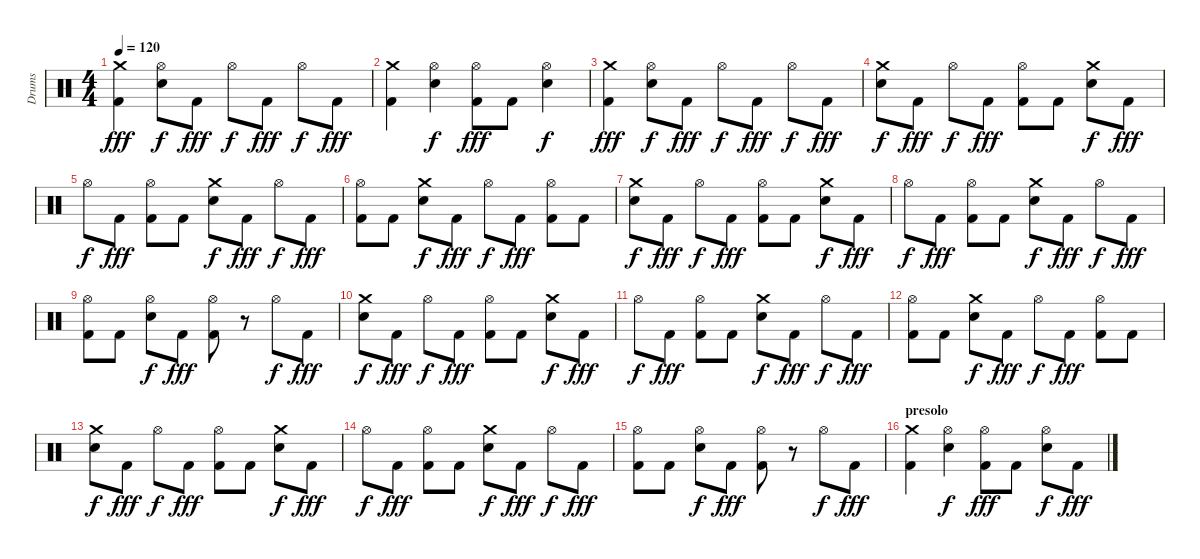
\track ("Drums" "Drums") {instrument percussion}
\staff {score}
\articulation defaults
\ts (4 4)
\tempo 120
\clef neutral
\ks c
("Kick (hit) 2" "Crash medium (hit)").4{dy fff} ("Electric Snare (hit)" "Hi-Hat (open)").8{dy f} "Kick (hit) 2".8{dy fff} "Hi-Hat (open)".8{dy f} "Kick (hit) 2".8{dy fff} "Hi-Hat (open)".8{dy f} "Kick (hit) 2".8{dy fff} |
("Kick (hit) 2" "Crash medium (hit)").4 ("Electric Snare (hit)" "Hi-Hat (open)").4{dy f} ("Kick (hit) 2" "Hi-Hat (open)").8{dy fff} "Kick (hit) 2".8 ("Electric Snare (hit)" "Hi-Hat (open)").4{dy f} |
("Kick (hit) 2" "Crash medium (hit)").4{dy fff} ("Electric Snare (hit)" "Hi-Hat (open)").8{dy f} "Kick (hit) 2".8{dy fff} "Hi-Hat (open)".8{dy f} "Kick (hit) 2".8{dy fff} "Hi-Hat (open)".8{dy f} "Kick (hit) 2".8{dy fff} |
("Crash medium (hit)" "Electric Snare (hit)").8{dy f} "Kick (hit) 2".8{dy fff} "Hi-Hat (open)".8{dy f} "Kick (hit) 2".8{dy fff} ("Kick (hit) 2" "Hi-Hat (open)").8 "Kick (hit) 2".8 ("Crash medium (hit)" "Electric Snare (hit)").8{dy f} "Kick (hit) 2".8{dy fff} |
"Hi-Hat (open)".8{dy f} "Kick (hit) 2".8{dy fff} ("Kick (hit) 2" "Hi-Hat (open)").8 "Kick (hit) 2".8 ("Crash medium (hit)" "Electric Snare (hit)").8{dy f} "Kick (hit) 2".8{dy fff} "Hi-Hat (open)".8{dy f} "Kick (hit) 2".8{dy fff} |
("Kick (hit) 2" "Hi-Hat (open)").8 "Kick (hit) 2".8 ("Crash medium (hit)" "Electric Snare (hit)").8{dy f} "Kick (hit) 2".8{dy fff} "Hi-Hat (open)".8{dy f} "Kick (hit) 2".8{dy fff} ("Kick (hit) 2" "Hi-Hat (open)").8 "Kick (hit) 2".8 |
("Crash medium (hit)" "Electric Snare (hit)").8{dy f} "Kick (hit) 2".8{dy fff} "Hi-Hat (open)".8{dy f} "Kick (hit) 2".8{dy fff} ("Kick (hit) 2" "Hi-Hat (open)").8 "Kick (hit) 2".8 ("Crash medium (hit)" "Electric Snare (hit)").8{dy f} "Kick (hit) 2".8{dy fff} |
"Hi-Hat (open)".8{dy f} "Kick (hit) 2".8{dy fff} ("Kick (hit) 2" "Hi-Hat (open)").8 "Kick (hit) 2".8 ("Crash medium (hit)" "Electric Snare (hit)").8{dy f} "Kick (hit) 2".8{dy fff} "Hi-Hat (open)".8{dy f} "Kick (hit) 2".8{dy fff} |
("Kick (hit) 2" "Hi-Hat (open)").8 "Kick (hit) 2".8 ("Hi-Hat (open)" "Electric Snare (hit)").8{dy f} "Kick (hit) 2".8{dy fff} ("Kick (hit) 2" "Hi-Hat (open)").8 r.8 "Hi-Hat (open)".8{dy f} "Kick (hit) 2".8{dy fff} |
("Crash medium (hit)" "Electric Snare (hit)").8{dy f} "Kick (hit) 2".8{dy fff} "Hi-Hat (open)".8{dy f} "Kick (hit) 2".8{dy fff} ("Kick (hit) 2" "Hi-Hat (open)").8 "Kick (hit) 2".8 ("Crash medium (hit)" "Electric Snare (hit)").8{dy f} "Kick (hit) 2".8{dy fff} |
"Hi-Hat (open)".8{dy f} "Kick (hit) 2".8{dy fff} ("Kick (hit) 2" "Hi-Hat (open)").8 "Kick (hit) 2".8 ("Crash medium (hit)" "Electric Snare (hit)").8{dy f} "Kick (hit) 2".8{dy fff} "Hi-Hat (open)".8{dy f} "Kick (hit) 2".8{dy fff} |
("Kick (hit) 2" "Hi-Hat (open)").8 "Kick (hit) 2".8 ("Crash medium (hit)" "Electric Snare (hit)").8{dy f} "Kick (hit) 2".8{dy fff} "Hi-Hat (open)".8{dy f} "Kick (hit) 2".8{dy fff} ("Kick (hit) 2" "Hi-Hat (open)").8 "Kick (hit) 2".8 |
("Crash medium (hit)" "Electric Snare (hit)").8{dy f} "Kick (hit) 2".8{dy fff} "Hi-Hat (open)".8{dy f} "Kick (hit) 2".8{dy fff} ("Kick (hit) 2" "Hi-Hat (open)").8 "Kick (hit) 2".8 ("Crash medium (hit)" "Electric Snare (hit)").8{dy f} "Kick (hit) 2".8{dy fff} |
"Hi-Hat (open)".8{dy f} "Kick (hit) 2".8{dy fff} ("Kick (hit) 2" "Hi-Hat (open)").8 "Kick (hit) 2".8 ("Crash medium (hit)" "Electric Snare (hit)").8{dy f} "Kick (hit) 2".8{dy fff} "Hi-Hat (open)".8{dy f} "Kick (hit) 2".8{dy fff} |
("Kick (hit) 2" "Hi-Hat (open)").8 "Kick (hit) 2".8 ("Hi-Hat (open)" "Electric Snare (hit)").8{dy f} "Kick (hit) 2".8{dy fff} ("Kick (hit) 2" "Hi-Hat (open)").8 r.8 "Hi-Hat (open)".8{dy f} "Kick (hit) 2".8{dy fff} |
\section ("" "presolo")
("Kick (hit) 2" "Crash medium (hit)").4 ("Electric Snare (hit)" "Hi-Hat (open)").4{dy f} ("Kick (hit) 2" "Hi-Hat (open)").8{dy fff} "Kick (hit) 2".8 ("Electric Snare (hit)" "Hi-Hat (open)").8{dy f} "Kick (hit) 2".8{dy fff}
